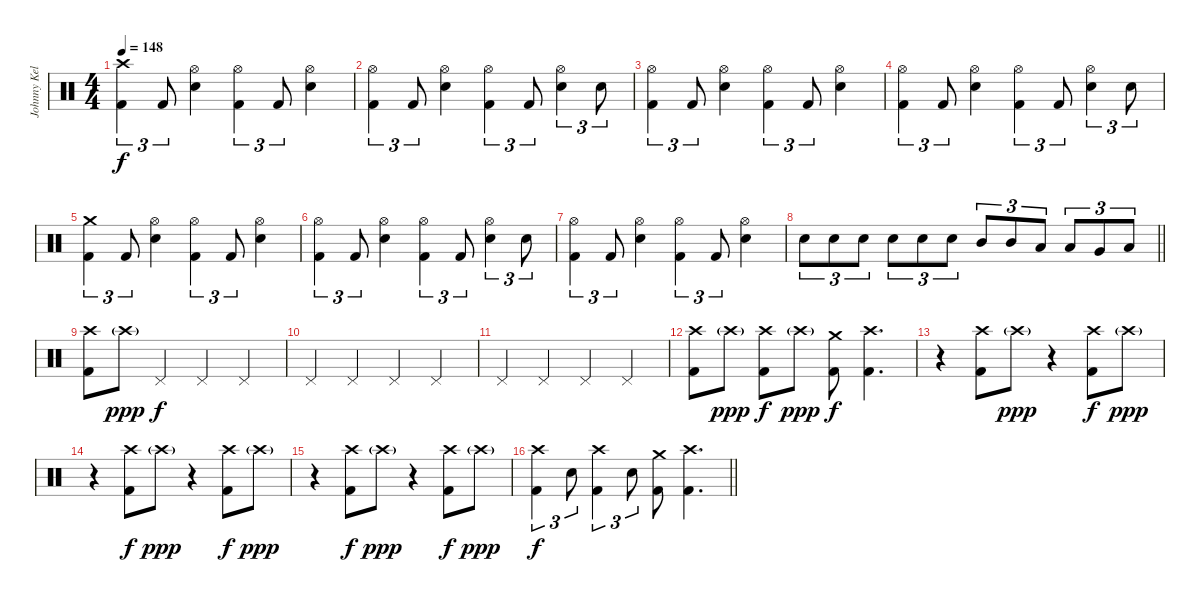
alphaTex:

\track ("Johnny Kelly" "Johnny Kel") {instrument percussion}
\staff {score}
\articulation defaults
\ts (4 4)
\tempo 148
\clef neutral
\ks c
("Crash high (hit)" "Kick (hit) 2").4{tu (3 2) dy f} "Kick (hit) 2".8{tu (3 2)} ("Hi-Hat (open)" "Electric Snare (hit)").4 ("Hi-Hat (open)" "Kick (hit) 2").4{tu (3 2)} "Kick (hit) 2".8{tu (3 2)} ("Hi-Hat (open)" "Electric Snare (hit)").4 |
("Hi-Hat (open)" "Kick (hit) 2").4{tu (3 2)} "Kick (hit) 2".8{tu (3 2)} ("Hi-Hat (open)" "Electric Snare (hit)").4 ("Hi-Hat (open)" "Kick (hit) 2").4{tu (3 2)} "Kick (hit) 2".8{tu (3 2)} ("Hi-Hat (open)" "Electric Snare (hit)").4{tu (3 2)} "Electric Snare (hit)".8{tu (3 2)} |
("Hi-Hat (open)" "Kick (hit) 2").4{tu (3 2)} "Kick (hit) 2".8{tu (3 2)} ("Hi-Hat (open)" "Electric Snare (hit)").4 ("Hi-Hat (open)" "Kick (hit) 2").4{tu (3 2)} "Kick (hit) 2".8{tu (3 2)} ("Hi-Hat (open)" "Electric Snare (hit)").4 |
("Hi-Hat (open)" "Kick (hit) 2").4{tu (3 2)} "Kick (hit) 2".8{tu (3 2)} ("Hi-Hat (open)" "Electric Snare (hit)").4 ("Hi-Hat (open)" "Kick (hit) 2").4{tu (3 2)} "Kick (hit) 2".8{tu (3 2)} ("Hi-Hat (open)" "Electric Snare (hit)").4{tu (3 2)} "Electric Snare (hit)".8{tu (3 2)} |
("Crash medium (hit)" "Kick (hit) 2").4{tu (3 2)} "Kick (hit) 2".8{tu (3 2)} ("Hi-Hat (open)" "Electric Snare (hit)").4 ("Hi-Hat (open)" "Kick (hit) 2").4{tu (3 2)} "Kick (hit) 2".8{tu (3 2)} ("Hi-Hat (open)" "Electric Snare (hit)").4 |
("Hi-Hat (open)" "Kick (hit) 2").4{tu (3 2)} "Kick (hit) 2".8{tu (3 2)} ("Hi-Hat (open)" "Electric Snare (hit)").4 ("Hi-Hat (open)" "Kick (hit) 2").4{tu (3 2)} "Kick (hit) 2".8{tu (3 2)} ("Hi-Hat (open)" "Electric Snare (hit)").4{tu (3 2)} "Electric Snare (hit)".8{tu (3 2)} |
("Hi-Hat (open)" "Kick (hit) 2").4{tu (3 2)} "Kick (hit) 2".8{tu (3 2)} ("Hi-Hat (open)" "Electric Snare (hit)").4 ("Hi-Hat (open)" "Kick (hit) 2").4{tu (3 2)} "Kick (hit) 2".8{tu (3 2)} ("Hi-Hat (open)" "Electric Snare (hit)").4 |
\barLineRight lightlight "Electric Snare (hit)".8{tu (3 2)} "Electric Snare (hit)".8{tu (3 2)} "Electric Snare (hit)".8{tu (3 2)} "Electric Snare (hit)".8{tu (3 2)} "Electric Snare (hit)".8{tu (3 2)} "Electric Snare (hit)".8{tu (3 2)} "Mid Tom (hit)".8{tu (3 2)} "Mid Tom (hit)".8{tu (3 2)} "Low Tom (hit)".8{tu (3 2)} "Low Tom (hit)".8{tu (3 2)} "Very Low Tom (hit)".8{tu (3 2)} "Low Floor Tom (hit)".8{tu (3 2)}
|
\section ("" "")
("Crash high (hit)" "Kick (hit) 2").8 "Crash high (hit)"{g}.8{dy ppp} "Pedal Hi-Hat (hit)".4{dy f} "Pedal Hi-Hat (hit)".4 "Pedal Hi-Hat (hit)".4 |
"Pedal Hi-Hat (hit)".4 "Pedal Hi-Hat (hit)".4 "Pedal Hi-Hat (hit)".4 "Pedal Hi-Hat (hit)".4 |
"Pedal Hi-Hat (hit)".4 "Pedal Hi-Hat (hit)".4 "Pedal Hi-Hat (hit)".4 "Pedal Hi-Hat (hit)".4 |
("Crash high (hit)" "Kick (hit) 2").8 "Crash high (hit)"{g}.8{dy ppp} ("Crash high (hit)" "Kick (hit) 2").8{dy f} "Crash high (hit)"{g}.8{dy ppp} ("Crash medium (hit)" "Kick (hit) 2").8{dy f} ("Crash high (hit)" "Kick (hit) 2").4{d} |
r.4 ("Crash high (hit)" "Kick (hit) 2").8 "Crash high (hit)"{g}.8{dy ppp} r.4 ("Crash high (hit)" "Kick (hit) 2").8{dy f} "Crash high (hit)"{g}.8{dy ppp} |
r.4 ("Crash high (hit)" "Kick (hit) 2").8{dy f} "Crash high (hit)"{g}.8{dy ppp} r.4 ("Crash high (hit)" "Kick (hit) 2").8{dy f} "Crash high (hit)"{g}.8{dy ppp} |
r.4 ("Crash high (hit)" "Kick (hit) 2").8{dy f} "Crash high (hit)"{g}.8{dy ppp} r.4 ("Crash high (hit)" "Kick (hit) 2").8{dy f} "Crash high (hit)"{g}.8{dy ppp} |
\barLineRight lightlight
("Crash high (hit)" "Kick (hit) 2").4{tu (3 2) dy f} "Electric Snare (hit)".8{tu (3 2)} ("Crash high (hit)" "Kick (hit) 2").4{tu (3 2)} "Electric Snare (hit)".8{tu (3 2)} ("Crash medium (hit)" "Kick (hit) 2").8 ("Crash high (hit)" "Kick (hit) 2").4{d}
